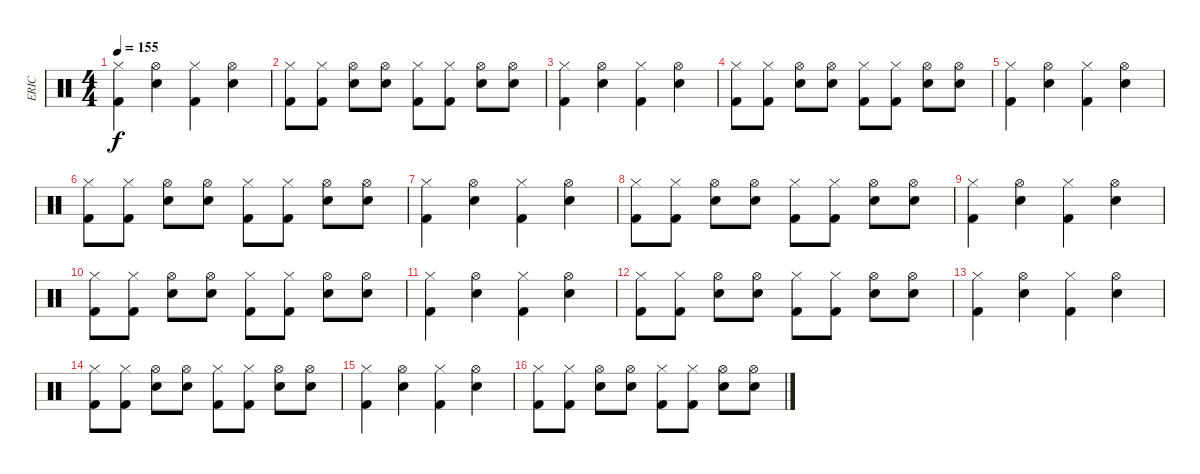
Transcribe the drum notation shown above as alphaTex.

\track ("ERIC" "ERIC") {instrument percussion}
\staff {score}
\articulation defaults
\ts (4 4)
\tempo 155
\clef neutral
\ks c
("Hi-Hat (closed)" "Kick (hit) 2").4{dy f} ("Hi-Hat (open)" "Snare (hit) 2").4 ("Hi-Hat (closed)" "Kick (hit) 2").4 ("Hi-Hat (open)" "Snare (hit) 2").4 |
("Hi-Hat (closed)" "Kick (hit) 2").8 ("Hi-Hat (closed)" "Kick (hit) 2").8 ("Hi-Hat (open)" "Snare (hit) 2").8 ("Hi-Hat (open)" "Snare (hit) 2").8 ("Hi-Hat (closed)" "Kick (hit) 2").8 ("Hi-Hat (closed)" "Kick (hit) 2").8 ("Hi-Hat (open)" "Snare (hit) 2").8 ("Hi-Hat (open)" "Snare (hit) 2").8 |
("Hi-Hat (closed)" "Kick (hit) 2").4 ("Hi-Hat (open)" "Snare (hit) 2").4 ("Hi-Hat (closed)" "Kick (hit) 2").4 ("Hi-Hat (open)" "Snare (hit) 2").4 |
("Hi-Hat (closed)" "Kick (hit) 2").8 ("Hi-Hat (closed)" "Kick (hit) 2").8 ("Hi-Hat (open)" "Snare (hit) 2").8 ("Hi-Hat (open)" "Snare (hit) 2").8 ("Hi-Hat (closed)" "Kick (hit) 2").8 ("Hi-Hat (closed)" "Kick (hit) 2").8 ("Hi-Hat (open)" "Snare (hit) 2").8 ("Hi-Hat (open)" "Snare (hit) 2").8 |
("Hi-Hat (closed)" "Kick (hit) 2").4 ("Hi-Hat (open)" "Snare (hit) 2").4 ("Hi-Hat (closed)" "Kick (hit) 2").4 ("Hi-Hat (open)" "Snare (hit) 2").4 |
("Hi-Hat (closed)" "Kick (hit) 2").8 ("Hi-Hat (closed)" "Kick (hit) 2").8 ("Hi-Hat (open)" "Snare (hit) 2").8 ("Hi-Hat (open)" "Snare (hit) 2").8 ("Hi-Hat (closed)" "Kick (hit) 2").8 ("Hi-Hat (closed)" "Kick (hit) 2").8 ("Hi-Hat (open)" "Snare (hit) 2").8 ("Hi-Hat (open)" "Snare (hit) 2").8 |
("Hi-Hat (closed)" "Kick (hit) 2").4 ("Hi-Hat (open)" "Snare (hit) 2").4 ("Hi-Hat (closed)" "Kick (hit) 2").4 ("Hi-Hat (open)" "Snare (hit) 2").4 |
("Hi-Hat (closed)" "Kick (hit) 2").8 ("Hi-Hat (closed)" "Kick (hit) 2").8 ("Hi-Hat (open)" "Snare (hit) 2").8 ("Hi-Hat (open)" "Snare (hit) 2").8 ("Hi-Hat (closed)" "Kick (hit) 2").8 ("Hi-Hat (closed)" "Kick (hit) 2").8 ("Hi-Hat (open)" "Snare (hit) 2").8 ("Hi-Hat (open)" "Snare (hit) 2").8 |
("Hi-Hat (closed)" "Kick (hit) 2").4 ("Hi-Hat (open)" "Snare (hit) 2").4 ("Hi-Hat (closed)" "Kick (hit) 2").4 ("Hi-Hat (open)" "Snare (hit) 2").4 |
("Hi-Hat (closed)" "Kick (hit) 2").8 ("Hi-Hat (closed)" "Kick (hit) 2").8 ("Hi-Hat (open)" "Snare (hit) 2").8 ("Hi-Hat (open)" "Snare (hit) 2").8 ("Hi-Hat (closed)" "Kick (hit) 2").8 ("Hi-Hat (closed)" "Kick (hit) 2").8 ("Hi-Hat (open)" "Snare (hit) 2").8 ("Hi-Hat (open)" "Snare (hit) 2").8 |
("Hi-Hat (closed)" "Kick (hit) 2").4 ("Hi-Hat (open)" "Snare (hit) 2").4 ("Hi-Hat (closed)" "Kick (hit) 2").4 ("Hi-Hat (open)" "Snare (hit) 2").4 |
("Hi-Hat (closed)" "Kick (hit) 2").8 ("Hi-Hat (closed)" "Kick (hit) 2").8 ("Hi-Hat (open)" "Snare (hit) 2").8 ("Hi-Hat (open)" "Snare (hit) 2").8 ("Hi-Hat (closed)" "Kick (hit) 2").8 ("Hi-Hat (closed)" "Kick (hit) 2").8 ("Hi-Hat (open)" "Snare (hit) 2").8 ("Hi-Hat (open)" "Snare (hit) 2").8 |
("Hi-Hat (closed)" "Kick (hit) 2").4 ("Hi-Hat (open)" "Snare (hit) 2").4 ("Hi-Hat (closed)" "Kick (hit) 2").4 ("Hi-Hat (open)" "Snare (hit) 2").4 |
("Hi-Hat (closed)" "Kick (hit) 2").8 ("Hi-Hat (closed)" "Kick (hit) 2").8 ("Hi-Hat (open)" "Snare (hit) 2").8 ("Hi-Hat (open)" "Snare (hit) 2").8 ("Hi-Hat (closed)" "Kick (hit) 2").8 ("Hi-Hat (closed)" "Kick (hit) 2").8 ("Hi-Hat (open)" "Snare (hit) 2").8 ("Hi-Hat (open)" "Snare (hit) 2").8 |
("Hi-Hat (closed)" "Kick (hit) 2").4 ("Hi-Hat (open)" "Snare (hit) 2").4 ("Hi-Hat (closed)" "Kick (hit) 2").4 ("Hi-Hat (open)" "Snare (hit) 2").4 |
("Hi-Hat (closed)" "Kick (hit) 2").8 ("Hi-Hat (closed)" "Kick (hit) 2").8 ("Hi-Hat (open)" "Snare (hit) 2").8 ("Hi-Hat (open)" "Snare (hit) 2").8 ("Hi-Hat (closed)" "Kick (hit) 2").8 ("Hi-Hat (closed)" "Kick (hit) 2").8 ("Hi-Hat (open)" "Snare (hit) 2").8 ("Hi-Hat (open)" "Snare (hit) 2").8
